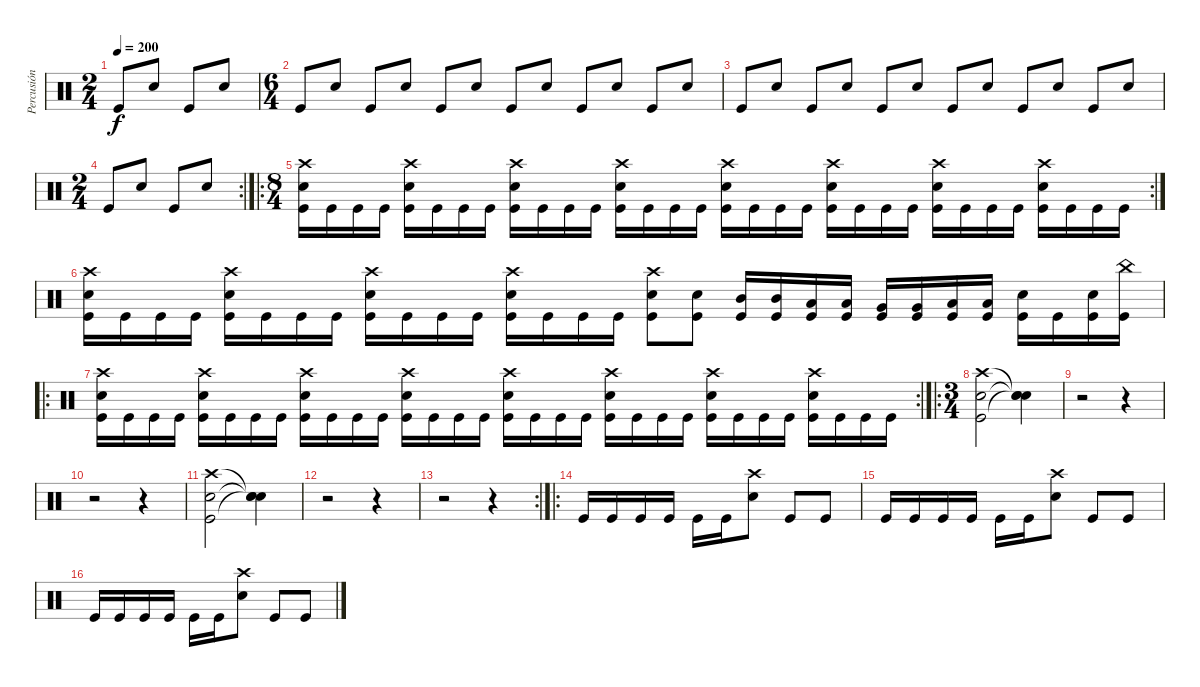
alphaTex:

\track ("Percusión" "Percusión") {instrument percussion}
\staff {score}
\articulation defaults
\ts (2 4)
\tempo 200
\clef neutral
\ks c "Kick (hit)".8{dy f} "Snare (hit) 2".8 "Kick (hit)".8 "Snare (hit) 2".8
|
\ts (6 4)
"Kick (hit)".8 "Snare (hit) 2".8 "Kick (hit)".8 "Snare (hit) 2".8 "Kick (hit)".8 "Snare (hit) 2".8 "Kick (hit)".8 "Snare (hit) 2".8 "Kick (hit)".8 "Snare (hit) 2".8 "Kick (hit)".8 "Snare (hit) 2".8 |
"Kick (hit)".8 "Snare (hit) 2".8 "Kick (hit)".8 "Snare (hit) 2".8 "Kick (hit)".8 "Snare (hit) 2".8 "Kick (hit)".8 "Snare (hit) 2".8 "Kick (hit)".8 "Snare (hit) 2".8 "Kick (hit)".8 "Snare (hit) 2".8 |
\rc 2
\ts (2 4)
"Kick (hit)".8 "Snare (hit) 2".8 "Kick (hit)".8 "Snare (hit) 2".8 |
\ro
\rc 2
\ts (8 4)
("Crash high (hit)" "Snare (hit) 2" "Kick (hit)").16 "Kick (hit)".16 "Kick (hit)".16 "Kick (hit)".16 ("Crash high (hit)" "Snare (hit) 2" "Kick (hit)").16 "Kick (hit)".16 "Kick (hit)".16 "Kick (hit)".16 ("Crash high (hit)" "Snare (hit) 2" "Kick (hit)").16 "Kick (hit)".16 "Kick (hit)".16 "Kick (hit)".16 ("Crash high (hit)" "Snare (hit) 2" "Kick (hit)").16 "Kick (hit)".16 "Kick (hit)".16 "Kick (hit)".16 ("Crash high (hit)" "Snare (hit) 2" "Kick (hit)").16 "Kick (hit)".16 "Kick (hit)".16 "Kick (hit)".16 ("Crash high (hit)" "Snare (hit) 2" "Kick (hit)").16 "Kick (hit)".16 "Kick (hit)".16 "Kick (hit)".16 ("Crash high (hit)" "Snare (hit) 2" "Kick (hit)").16 "Kick (hit)".16 "Kick (hit)".16 "Kick (hit)".16 ("Crash high (hit)" "Snare (hit) 2" "Kick (hit)").16 "Kick (hit)".16 "Kick (hit)".16 "Kick (hit)".16 |
("Crash high (hit)" "Snare (hit) 2" "Kick (hit)").16 "Kick (hit)".16 "Kick (hit)".16 "Kick (hit)".16 ("Crash high (hit)" "Snare (hit) 2" "Kick (hit)").16 "Kick (hit)".16 "Kick (hit)".16 "Kick (hit)".16 ("Crash high (hit)" "Snare (hit) 2" "Kick (hit)").16 "Kick (hit)".16 "Kick (hit)".16 "Kick (hit)".16 ("Crash high (hit)" "Snare (hit) 2" "Kick (hit)").16 "Kick (hit)".16 "Kick (hit)".16 "Kick (hit)".16 ("Crash high (hit)" "Snare (hit) 2" "Kick (hit)").8 ("Snare (hit) 2" "Kick (hit)").8 ("Mid Tom (hit)" "Kick (hit)").16 ("Mid Tom (hit)" "Kick (hit)").16 ("Low Tom (hit)" "Kick (hit)").16 ("Low Tom (hit)" "Kick (hit)").16 ("Very Low Tom (hit)" "Kick (hit)").16 ("Very Low Tom (hit)" "Kick (hit)").16 ("Low Floor Tom (hit)" "Kick (hit)").16 ("Low Floor Tom (hit)" "Kick (hit)").16 ("Snare (hit) 2" "Kick (hit)").16 "Kick (hit)".16 ("Snare (hit) 2" "Kick (hit)").16 ("China (hit)" "Kick (hit)").16 |
\ro
\rc 2
("Crash high (hit)" "Snare (hit) 2" "Kick (hit)").16 "Kick (hit)".16 "Kick (hit)".16 "Kick (hit)".16 ("Crash high (hit)" "Snare (hit) 2" "Kick (hit)").16 "Kick (hit)".16 "Kick (hit)".16 "Kick (hit)".16 ("Crash high (hit)" "Snare (hit) 2" "Kick (hit)").16 "Kick (hit)".16 "Kick (hit)".16 "Kick (hit)".16 ("Crash high (hit)" "Snare (hit) 2" "Kick (hit)").16 "Kick (hit)".16 "Kick (hit)".16 "Kick (hit)".16 ("Crash high (hit)" "Snare (hit) 2" "Kick (hit)").16 "Kick (hit)".16 "Kick (hit)".16 "Kick (hit)".16 ("Crash high (hit)" "Snare (hit) 2" "Kick (hit)").16 "Kick (hit)".16 "Kick (hit)".16 "Kick (hit)".16 ("Crash high (hit)" "Snare (hit) 2" "Kick (hit)").16 "Kick (hit)".16 "Kick (hit)".16 "Kick (hit)".16 ("Crash high (hit)" "Snare (hit) 2" "Kick (hit)").16 "Kick (hit)".16 "Kick (hit)".16 "Kick (hit)".16 |
\ro
\ts (3 4)
("Crash high (hit)" "Snare (hit) 2" "Kick (hit)").2 ("Snare (hit)"{t} "Snare (hit)"{t} "Snare (hit)"{t}).4 |
r.2 r.4 |
r.2 r.4 |
("Crash high (hit)" "Snare (hit) 2" "Kick (hit)").2 ("Snare (hit)"{t} "Snare (hit)"{t} "Snare (hit)"{t}).4 |
r.2 r.4 |
\rc 2
r.2 r.4 |
\ro "Kick (hit)".16 "Kick (hit)".16 "Kick (hit)".16 "Kick (hit)".16 "Kick (hit)".16 "Kick (hit)".16
("Crash high (hit)" "Snare (hit) 2").8 "Kick (hit)".8 "Kick (hit)".8 |
"Kick (hit)".16 "Kick (hit)".16 "Kick (hit)".16 "Kick (hit)".16 "Kick (hit)".16 "Kick (hit)".16 ("Crash high (hit)" "Snare (hit) 2").8 "Kick (hit)".8 "Kick (hit)".8 |
"Kick (hit)".16 "Kick (hit)".16 "Kick (hit)".16 "Kick (hit)".16 "Kick (hit)".16 "Kick (hit)".16 ("Crash high (hit)" "Snare (hit) 2").8 "Kick (hit)".8 "Kick (hit)".8
